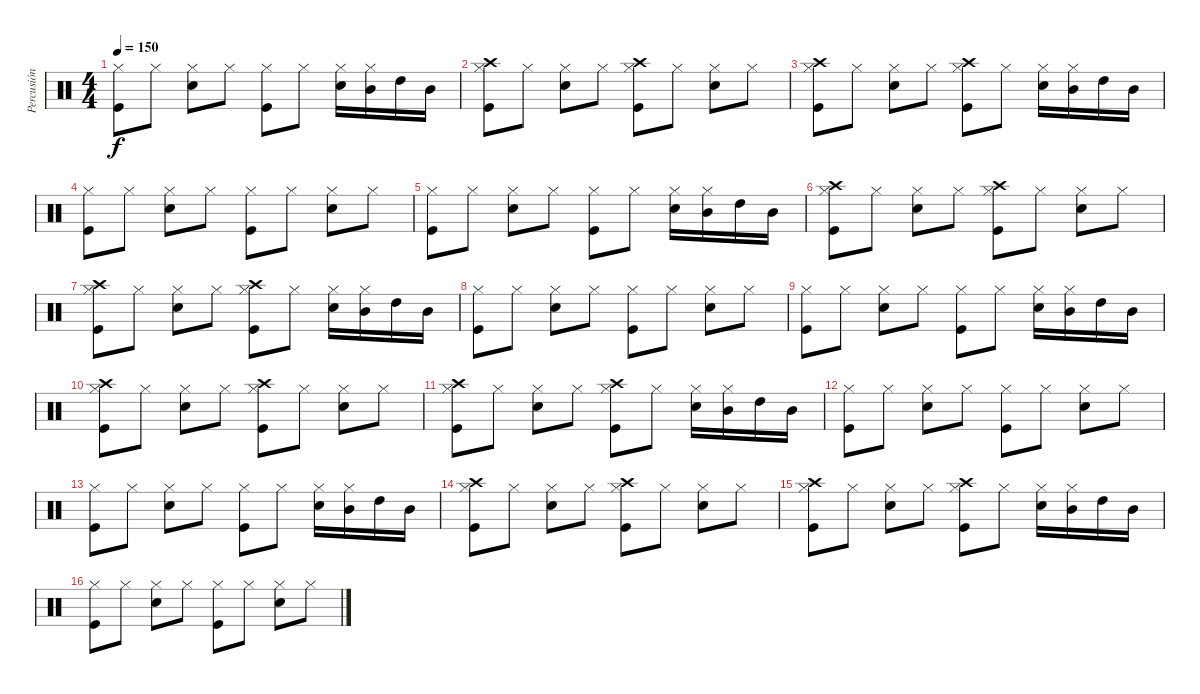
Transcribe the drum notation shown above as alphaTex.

\track ("Percusión" "Percusión") {instrument percussion}
\staff {score}
\articulation defaults
\ts (4 4)
\tempo 150
\clef neutral
\ks c
("Hi-Hat (closed)" "Kick (hit)").8{dy f} "Hi-Hat (closed)".8 ("Hi-Hat (closed)" "Snare (hit) 2").8 "Hi-Hat (closed)".8 ("Hi-Hat (closed)" "Kick (hit)").8 "Hi-Hat (closed)".8 ("Hi-Hat (closed)" "Snare (hit) 2").16 ("Hi-Hat (closed)" "Mid Tom (hit)").16 "High Tom (hit)".16 "Mid Tom (hit)".16 |
("Hi-Hat (closed)" "Crash high (hit)" "Kick (hit)").8 "Hi-Hat (closed)".8 ("Hi-Hat (closed)" "Snare (hit) 2").8 "Hi-Hat (closed)".8 ("Hi-Hat (closed)" "Crash high (hit)" "Kick (hit)").8 "Hi-Hat (closed)".8 ("Hi-Hat (closed)" "Snare (hit) 2").8 "Hi-Hat (closed)".8 |
("Hi-Hat (closed)" "Crash high (hit)" "Kick (hit)").8 "Hi-Hat (closed)".8 ("Hi-Hat (closed)" "Snare (hit) 2").8 "Hi-Hat (closed)".8 ("Hi-Hat (closed)" "Crash high (hit)" "Kick (hit)").8 "Hi-Hat (closed)".8 ("Hi-Hat (closed)" "Snare (hit) 2").16 ("Hi-Hat (closed)" "Mid Tom (hit)").16 "High Tom (hit)".16 "Mid Tom (hit)".16 |
("Hi-Hat (closed)" "Kick (hit)").8 "Hi-Hat (closed)".8 ("Hi-Hat (closed)" "Snare (hit) 2").8 "Hi-Hat (closed)".8 ("Hi-Hat (closed)" "Kick (hit)").8 "Hi-Hat (closed)".8 ("Hi-Hat (closed)" "Snare (hit) 2").8 "Hi-Hat (closed)".8 |
("Hi-Hat (closed)" "Kick (hit)").8 "Hi-Hat (closed)".8 ("Hi-Hat (closed)" "Snare (hit) 2").8 "Hi-Hat (closed)".8 ("Hi-Hat (closed)" "Kick (hit)").8 "Hi-Hat (closed)".8 ("Hi-Hat (closed)" "Snare (hit) 2").16 ("Hi-Hat (closed)" "Mid Tom (hit)").16 "High Tom (hit)".16 "Mid Tom (hit)".16 |
("Hi-Hat (closed)" "Crash high (hit)" "Kick (hit)").8 "Hi-Hat (closed)".8 ("Hi-Hat (closed)" "Snare (hit) 2").8 "Hi-Hat (closed)".8 ("Hi-Hat (closed)" "Crash high (hit)" "Kick (hit)").8 "Hi-Hat (closed)".8 ("Hi-Hat (closed)" "Snare (hit) 2").8 "Hi-Hat (closed)".8 |
("Hi-Hat (closed)" "Crash high (hit)" "Kick (hit)").8 "Hi-Hat (closed)".8 ("Hi-Hat (closed)" "Snare (hit) 2").8 "Hi-Hat (closed)".8 ("Hi-Hat (closed)" "Crash high (hit)" "Kick (hit)").8 "Hi-Hat (closed)".8 ("Hi-Hat (closed)" "Snare (hit) 2").16 ("Hi-Hat (closed)" "Mid Tom (hit)").16 "High Tom (hit)".16 "Mid Tom (hit)".16 |
("Hi-Hat (closed)" "Kick (hit)").8 "Hi-Hat (closed)".8 ("Hi-Hat (closed)" "Snare (hit) 2").8 "Hi-Hat (closed)".8 ("Hi-Hat (closed)" "Kick (hit)").8 "Hi-Hat (closed)".8 ("Hi-Hat (closed)" "Snare (hit) 2").8 "Hi-Hat (closed)".8 |
("Hi-Hat (closed)" "Kick (hit)").8 "Hi-Hat (closed)".8 ("Hi-Hat (closed)" "Snare (hit) 2").8 "Hi-Hat (closed)".8 ("Hi-Hat (closed)" "Kick (hit)").8 "Hi-Hat (closed)".8 ("Hi-Hat (closed)" "Snare (hit) 2").16 ("Hi-Hat (closed)" "Mid Tom (hit)").16 "High Tom (hit)".16 "Mid Tom (hit)".16 |
("Hi-Hat (closed)" "Crash high (hit)" "Kick (hit)").8 "Hi-Hat (closed)".8 ("Hi-Hat (closed)" "Snare (hit) 2").8 "Hi-Hat (closed)".8 ("Hi-Hat (closed)" "Crash high (hit)" "Kick (hit)").8 "Hi-Hat (closed)".8 ("Hi-Hat (closed)" "Snare (hit) 2").8 "Hi-Hat (closed)".8 |
("Hi-Hat (closed)" "Crash high (hit)" "Kick (hit)").8 "Hi-Hat (closed)".8 ("Hi-Hat (closed)" "Snare (hit) 2").8 "Hi-Hat (closed)".8 ("Hi-Hat (closed)" "Crash high (hit)" "Kick (hit)").8 "Hi-Hat (closed)".8 ("Hi-Hat (closed)" "Snare (hit) 2").16 ("Hi-Hat (closed)" "Mid Tom (hit)").16 "High Tom (hit)".16 "Mid Tom (hit)".16 |
("Hi-Hat (closed)" "Kick (hit)").8 "Hi-Hat (closed)".8 ("Hi-Hat (closed)" "Snare (hit) 2").8 "Hi-Hat (closed)".8 ("Hi-Hat (closed)" "Kick (hit)").8 "Hi-Hat (closed)".8 ("Hi-Hat (closed)" "Snare (hit) 2").8 "Hi-Hat (closed)".8 |
("Hi-Hat (closed)" "Kick (hit)").8 "Hi-Hat (closed)".8 ("Hi-Hat (closed)" "Snare (hit) 2").8 "Hi-Hat (closed)".8 ("Hi-Hat (closed)" "Kick (hit)").8 "Hi-Hat (closed)".8 ("Hi-Hat (closed)" "Snare (hit) 2").16 ("Hi-Hat (closed)" "Mid Tom (hit)").16 "High Tom (hit)".16 "Mid Tom (hit)".16 |
("Hi-Hat (closed)" "Crash high (hit)" "Kick (hit)").8 "Hi-Hat (closed)".8 ("Hi-Hat (closed)" "Snare (hit) 2").8 "Hi-Hat (closed)".8 ("Hi-Hat (closed)" "Crash high (hit)" "Kick (hit)").8 "Hi-Hat (closed)".8 ("Hi-Hat (closed)" "Snare (hit) 2").8 "Hi-Hat (closed)".8 |
("Hi-Hat (closed)" "Crash high (hit)" "Kick (hit)").8 "Hi-Hat (closed)".8 ("Hi-Hat (closed)" "Snare (hit) 2").8 "Hi-Hat (closed)".8 ("Hi-Hat (closed)" "Crash high (hit)" "Kick (hit)").8 "Hi-Hat (closed)".8 ("Hi-Hat (closed)" "Snare (hit) 2").16 ("Hi-Hat (closed)" "Mid Tom (hit)").16 "High Tom (hit)".16 "Mid Tom (hit)".16 |
("Hi-Hat (closed)" "Kick (hit)").8 "Hi-Hat (closed)".8 ("Hi-Hat (closed)" "Snare (hit) 2").8 "Hi-Hat (closed)".8 ("Hi-Hat (closed)" "Kick (hit)").8 "Hi-Hat (closed)".8 ("Hi-Hat (closed)" "Snare (hit) 2").8 "Hi-Hat (closed)".8
